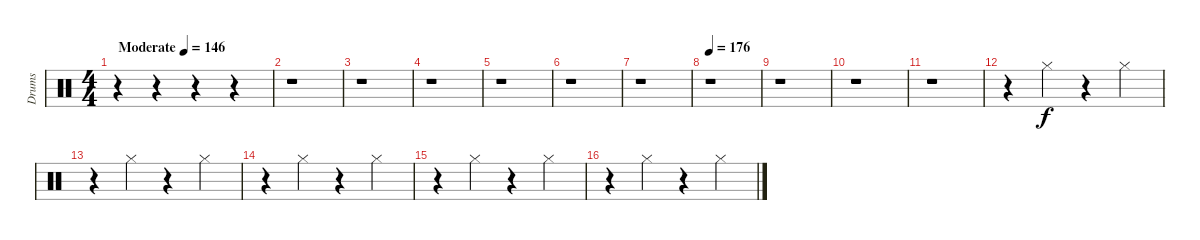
\track ("Drums" "Drums") {instrument percussion}
\staff {score}
\articulation defaults
\ts (4 4)
\tempo (146 "Moderate")
\clef neutral
\ks c
r.4{dy f} r.4 r.4 r.4 |
r.1 |
r.1 |
r.1 |
r.1 |
r.1 |
r.1 |
\tempo 176
r.1 |
r.1 |
r.1 |
r.1 |
r.4 "Hi-Hat (closed)".4 r.4 "Hi-Hat (closed)".4 |
r.4 "Hi-Hat (closed)".4 r.4 "Hi-Hat (closed)".4 |
r.4 "Hi-Hat (closed)".4 r.4 "Hi-Hat (closed)".4 |
r.4 "Hi-Hat (closed)".4 r.4 "Hi-Hat (closed)".4 |
r.4 "Hi-Hat (closed)".4 r.4 "Hi-Hat (closed)".4
